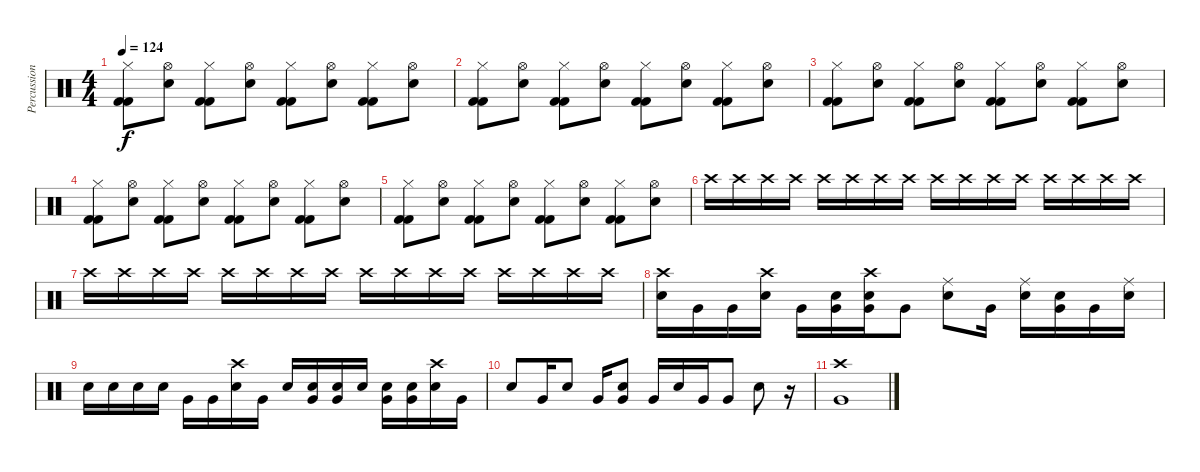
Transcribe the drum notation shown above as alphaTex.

\track ("Percussions" "Percussion") {instrument percussion}
\staff {score}
\articulation defaults
\ts (4 4)
\tempo 124
\clef neutral
\ks c
("Kick (hit) 2" "Kick (hit) 2" "Hi-Hat (closed)").8{dy f} ("Hand Clap (hit)" "Hi-Hat (open)").8 ("Kick (hit) 2" "Kick (hit) 2" "Hi-Hat (closed)").8 ("Hand Clap (hit)" "Hi-Hat (open)").8 ("Kick (hit) 2" "Kick (hit) 2" "Hi-Hat (closed)").8 ("Hand Clap (hit)" "Hi-Hat (open)").8 ("Kick (hit) 2" "Kick (hit) 2" "Hi-Hat (closed)").8 ("Hand Clap (hit)" "Hi-Hat (open)").8 |
("Kick (hit) 2" "Kick (hit) 2" "Hi-Hat (closed)").8 ("Hand Clap (hit)" "Hi-Hat (open)").8 ("Kick (hit) 2" "Kick (hit) 2" "Hi-Hat (closed)").8 ("Hand Clap (hit)" "Hi-Hat (open)").8 ("Kick (hit) 2" "Kick (hit) 2" "Hi-Hat (closed)").8 ("Hand Clap (hit)" "Hi-Hat (open)").8 ("Kick (hit) 2" "Kick (hit) 2" "Hi-Hat (closed)").8 ("Hand Clap (hit)" "Hi-Hat (open)").8 |
("Kick (hit) 2" "Kick (hit) 2" "Hi-Hat (closed)").8 ("Hand Clap (hit)" "Hi-Hat (open)").8 ("Kick (hit) 2" "Kick (hit) 2" "Hi-Hat (closed)").8 ("Hand Clap (hit)" "Hi-Hat (open)").8 ("Kick (hit) 2" "Kick (hit) 2" "Hi-Hat (closed)").8 ("Hand Clap (hit)" "Hi-Hat (open)").8 ("Kick (hit) 2" "Kick (hit) 2" "Hi-Hat (closed)").8 ("Hand Clap (hit)" "Hi-Hat (open)").8 |
("Kick (hit) 2" "Kick (hit) 2" "Hi-Hat (closed)").8 ("Hand Clap (hit)" "Hi-Hat (open)").8 ("Kick (hit) 2" "Kick (hit) 2" "Hi-Hat (closed)").8 ("Hand Clap (hit)" "Hi-Hat (open)").8 ("Kick (hit) 2" "Kick (hit) 2" "Hi-Hat (closed)").8 ("Hand Clap (hit)" "Hi-Hat (open)").8 ("Kick (hit) 2" "Kick (hit) 2" "Hi-Hat (closed)").8 ("Hand Clap (hit)" "Hi-Hat (open)").8 |
("Kick (hit) 2" "Kick (hit) 2" "Hi-Hat (closed)").8 ("Hand Clap (hit)" "Hi-Hat (open)").8 ("Kick (hit) 2" "Kick (hit) 2" "Hi-Hat (closed)").8 ("Hand Clap (hit)" "Hi-Hat (open)").8 ("Kick (hit) 2" "Kick (hit) 2" "Hi-Hat (closed)").8 ("Hand Clap (hit)" "Hi-Hat (open)").8 ("Kick (hit) 2" "Kick (hit) 2" "Hi-Hat (closed)").8 ("Hand Clap (hit)" "Hi-Hat (open)").8 |
"Crash high (hit)".16 "Crash high (hit)".16 "Crash high (hit)".16 "Crash high (hit)".16 "Crash high (hit)".16 "Crash high (hit)".16 "Crash high (hit)".16 "Crash high (hit)".16 "Crash high (hit)".16 "Crash high (hit)".16 "Crash high (hit)".16 "Crash high (hit)".16 "Crash high (hit)".16 "Crash high (hit)".16 "Crash high (hit)".16 "Crash high (hit)".16 |
"Crash high (hit)".16 "Crash high (hit)".16 "Crash high (hit)".16 "Crash high (hit)".16 "Crash high (hit)".16 "Crash high (hit)".16 "Crash high (hit)".16 "Crash high (hit)".16 "Crash high (hit)".16 "Crash high (hit)".16 "Crash high (hit)".16 "Crash high (hit)".16 "Crash high (hit)".16 "Crash high (hit)".16 "Crash high (hit)".16 "Crash high (hit)".16 |
("Electric Snare (hit)" "Crash high (hit)").16 "Very Low Tom (hit)".16 "Very Low Tom (hit)".16 ("Electric Snare (hit)" "Crash high (hit)").16 "Very Low Tom (hit)".16 ("Electric Snare (hit)" "Very Low Tom (hit)").16 ("Electric Snare (hit)" "Very Low Tom (hit)" "Crash high (hit)").16 "Very Low Tom (hit)".8 ("Electric Snare (hit)" "Ride (middle)").8 "Very Low Tom (hit)".16 ("Electric Snare (hit)" "Ride (middle)").16 ("Electric Snare (hit)" "Very Low Tom (hit)").16 "Very Low Tom (hit)".16 ("Electric Snare (hit)" "Ride (middle)").16 |
"Electric Snare (hit)".16 "Electric Snare (hit)".16 "Electric Snare (hit)".16 "Electric Snare (hit)".16 "Very Low Tom (hit)".16 "Very Low Tom (hit)".16 ("Electric Snare (hit)" "Crash high (hit)").16 "Very Low Tom (hit)".16 "Electric Snare (hit)".16 ("Electric Snare (hit)" "Very Low Tom (hit)").16 ("Electric Snare (hit)" "Very Low Tom (hit)").16 "Electric Snare (hit)".16 ("Electric Snare (hit)" "Very Low Tom (hit)").16 ("Electric Snare (hit)" "Very Low Tom (hit)").16 ("Electric Snare (hit)" "Crash high (hit)").16 "Very Low Tom (hit)".16 |
"Electric Snare (hit)".8 "Very Low Tom (hit)".16 "Electric Snare (hit)".8 "Very Low Tom (hit)".16 ("Electric Snare (hit)" "Very Low Tom (hit)").8 "Very Low Tom (hit)".16 "Electric Snare (hit)".16 "Very Low Tom (hit)".16 "Very Low Tom (hit)".8 "Electric Snare (hit)".8 r.16 |
("Very Low Tom (hit)" "Crash high (hit)").1
